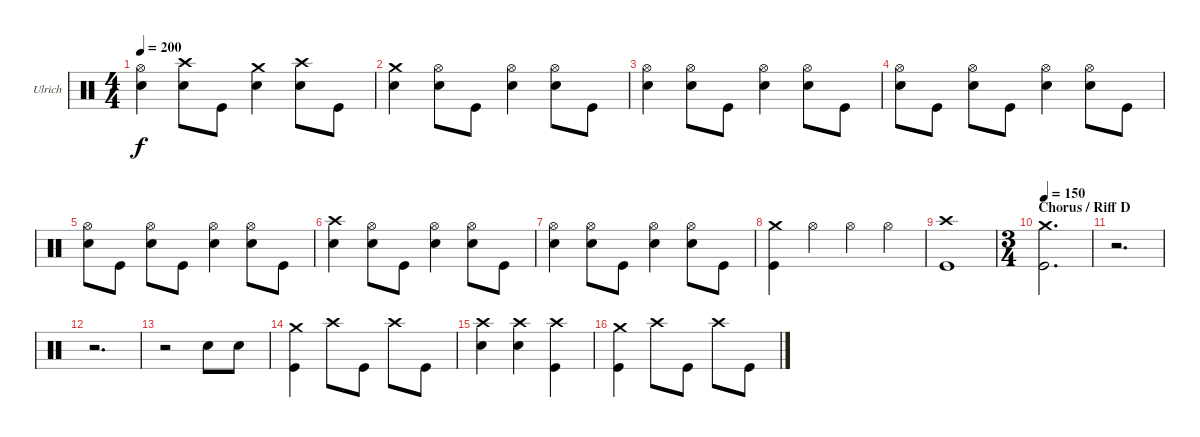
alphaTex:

\bracketExtendMode groupsimilarinstruments
\firstSystemTrackNameOrientation horizontal
\otherSystemsTrackNameOrientation horizontal
\track ("Drumkit" "Ulrich") {instrument percussion}
\staff {score}
\articulation defaults
\ts (4 4)
\tempo 200
\clef neutral
\ks c
("Hi-Hat (open)" "Snare (hit) 2").4{dy f} ("Crash high (hit)" "Snare (hit) 2").8 "Kick (hit)".8 ("Crash medium (hit)" "Snare (hit) 2").4 ("Crash high (hit)" "Snare (hit) 2").8 "Kick (hit)".8 |
("Crash medium (hit)" "Snare (hit) 2").4 ("Hi-Hat (open)" "Snare (hit) 2").8 "Kick (hit)".8 ("Hi-Hat (open)" "Snare (hit) 2").4 ("Hi-Hat (open)" "Snare (hit) 2").8 "Kick (hit)".8 |
("Hi-Hat (open)" "Snare (hit) 2").4 ("Hi-Hat (open)" "Snare (hit) 2").8 "Kick (hit)".8 ("Hi-Hat (open)" "Snare (hit) 2").4 ("Hi-Hat (open)" "Snare (hit) 2").8 "Kick (hit)".8 |
("Hi-Hat (open)" "Snare (hit) 2").8 "Kick (hit)".8 ("Hi-Hat (open)" "Snare (hit) 2").8 "Kick (hit)".8 ("Hi-Hat (open)" "Snare (hit) 2").4 ("Hi-Hat (open)" "Snare (hit) 2").8 "Kick (hit)".8 |
("Hi-Hat (open)" "Snare (hit) 2").8 "Kick (hit)".8 ("Hi-Hat (open)" "Snare (hit) 2").8 "Kick (hit)".8 ("Hi-Hat (open)" "Snare (hit) 2").4 ("Hi-Hat (open)" "Snare (hit) 2").8 "Kick (hit)".8 |
("Crash high (hit)" "Snare (hit) 2").4 ("Hi-Hat (open)" "Snare (hit) 2").8 "Kick (hit)".8 ("Hi-Hat (open)" "Snare (hit) 2").4 ("Hi-Hat (open)" "Snare (hit) 2").8 "Kick (hit)".8 |
("Hi-Hat (open)" "Snare (hit) 2").4 ("Hi-Hat (open)" "Snare (hit) 2").8 "Kick (hit)".8 ("Hi-Hat (open)" "Snare (hit) 2").4 ("Hi-Hat (open)" "Snare (hit) 2").8 "Kick (hit)".8 |
("Crash medium (hit)" "Kick (hit)").4 "Hi-Hat (open)".4 "Hi-Hat (open)".4 "Hi-Hat (open)".4 |
("Crash high (hit)" "Kick (hit)").1 |
\ts (3 4)
\beaming (8 2 2 2)
\section ("" "Chorus / Riff D")
\tempo 150
("Crash medium (hit)" "Kick (hit)").2{d} |
r.2{d} |
r.2{d} |
r.2 "Snare (hit) 2".8 "Snare (hit) 2".8 |
("Crash medium (hit)" "Kick (hit)").4 "Crash high (hit)".8 "Kick (hit)".8 "Crash high (hit)".8 "Kick (hit)".8 |
("Crash high (hit)" "Snare (hit) 2").4 ("Crash high (hit)" "Snare (hit) 2").4 ("Crash high (hit)" "Kick (hit)").4 |
("Crash medium (hit)" "Kick (hit)").4 "Crash high (hit)".8 "Kick (hit)".8 "Crash high (hit)".8 "Kick (hit)".8
